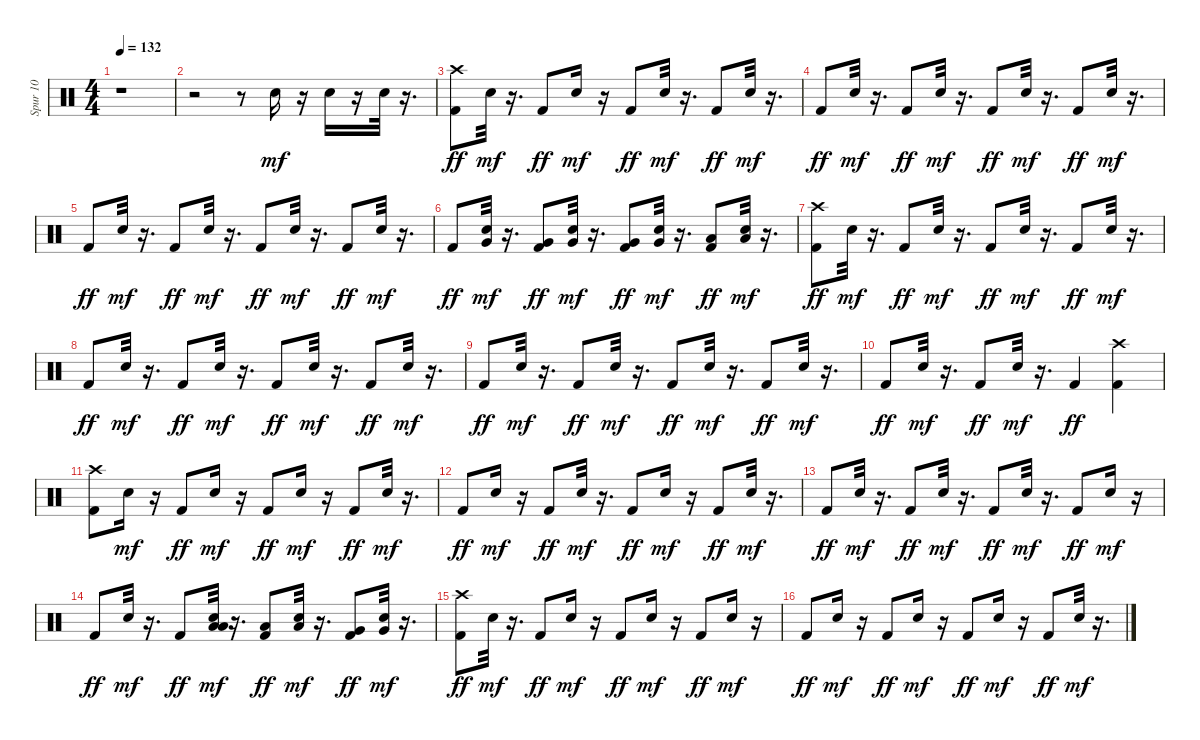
\track ("Spur 10" "Spur 10") {instrument percussion}
\staff {score}
\articulation defaults
\ts (4 4)
\tempo 132
\clef neutral
\ks c
r.1{dy mf} |
r.2 r.8 "Electric Snare (hit)".16 r.16 "Electric Snare (hit)".16 r.16 "Electric Snare (hit)".32 r.16{d} |
("Crash high (hit)" "Kick (hit) 2").8{dy ff} "Snare (hit) 2".32{dy mf} r.16{d} "Kick (hit) 2".8{dy ff} "Snare (hit) 2".16{dy mf} r.16 "Kick (hit) 2".8{dy ff} "Snare (hit) 2".32{dy mf} r.16{d} "Kick (hit) 2".8{dy ff} "Snare (hit) 2".32{dy mf} r.16{d} |
"Kick (hit) 2".8{dy ff} "Snare (hit) 2".32{dy mf} r.16{d} "Kick (hit) 2".8{dy ff} "Snare (hit) 2".32{dy mf} r.16{d} "Kick (hit) 2".8{dy ff} "Snare (hit) 2".32{dy mf} r.16{d} "Kick (hit) 2".8{dy ff} "Snare (hit) 2".32{dy mf} r.16{d} |
"Kick (hit) 2".8{dy ff} "Snare (hit) 2".32{dy mf} r.16{d} "Kick (hit) 2".8{dy ff} "Snare (hit) 2".32{dy mf} r.16{d} "Kick (hit) 2".8{dy ff} "Snare (hit) 2".32{dy mf} r.16{d} "Kick (hit) 2".8{dy ff} "Snare (hit) 2".32{dy mf} r.16{d} |
"Kick (hit) 2".8{dy ff} ("Snare (hit) 2" "Very Low Tom (hit)").32{dy mf} r.16{d} ("Very Low Tom (hit)" "Kick (hit) 2").8{dy ff} ("Snare (hit) 2" "Very Low Tom (hit)").32{dy mf} r.16{d} ("Very Low Tom (hit)" "Kick (hit) 2").8{dy ff} ("Very Low Tom (hit)" "Snare (hit) 2").32{dy mf} r.16{d} ("Low Floor Tom (hit)" "Kick (hit) 2").8{dy ff} ("Snare (hit) 2" "Low Floor Tom (hit)").32{dy mf} r.16{d} |
("Crash high (hit)" "Kick (hit) 2").8{dy ff} "Snare (hit) 2".32{dy mf} r.16{d} "Kick (hit) 2".8{dy ff} "Snare (hit) 2".32{dy mf} r.16{d} "Kick (hit) 2".8{dy ff} "Snare (hit) 2".32{dy mf} r.16{d} "Kick (hit) 2".8{dy ff} "Snare (hit) 2".32{dy mf} r.16{d} |
"Kick (hit) 2".8{dy ff} "Snare (hit) 2".32{dy mf} r.16{d} "Kick (hit) 2".8{dy ff} "Snare (hit) 2".32{dy mf} r.16{d} "Kick (hit) 2".8{dy ff} "Snare (hit) 2".32{dy mf} r.16{d} "Kick (hit) 2".8{dy ff} "Snare (hit) 2".32{dy mf} r.16{d} |
"Kick (hit) 2".8{dy ff} "Snare (hit) 2".32{dy mf} r.16{d} "Kick (hit) 2".8{dy ff} "Snare (hit) 2".32{dy mf} r.16{d} "Kick (hit) 2".8{dy ff} "Snare (hit) 2".32{dy mf} r.16{d} "Kick (hit) 2".8{dy ff} "Snare (hit) 2".32{dy mf} r.16{d} |
"Kick (hit) 2".8{dy ff} "Snare (hit) 2".32{dy mf} r.16{d} "Kick (hit) 2".8{dy ff} "Snare (hit) 2".32{dy mf} r.16{d} "Kick (hit) 2".4{dy ff} ("Crash high (hit)" "Kick (hit) 2").4 |
("Crash high (hit)" "Kick (hit) 2").8 "Snare (hit) 2".16{dy mf} r.16 "Kick (hit) 2".8{dy ff} "Snare (hit) 2".16{dy mf} r.16 "Kick (hit) 2".8{dy ff} "Snare (hit) 2".16{dy mf} r.16 "Kick (hit) 2".8{dy ff} "Snare (hit) 2".32{dy mf} r.16{d} |
"Kick (hit) 2".8{dy ff} "Snare (hit) 2".16{dy mf} r.16 "Kick (hit) 2".8{dy ff} "Snare (hit) 2".32{dy mf} r.16{d} "Kick (hit) 2".8{dy ff} "Snare (hit) 2".16{dy mf} r.16 "Kick (hit) 2".8{dy ff} "Snare (hit) 2".32{dy mf} r.16{d} |
"Kick (hit) 2".8{dy ff} "Snare (hit) 2".32{dy mf} r.16{d} "Kick (hit) 2".8{dy ff} "Snare (hit) 2".32{dy mf} r.16{d} "Kick (hit) 2".8{dy ff} "Snare (hit) 2".32{dy mf} r.16{d} "Kick (hit) 2".8{dy ff} "Snare (hit) 2".16{dy mf} r.16 |
"Kick (hit) 2".8{dy ff} "Snare (hit) 2".32{dy mf} r.16{d} "Kick (hit) 2".8{dy ff} ("Snare (hit) 2" "Low Tom (hit)" "Low Tom (hit)").32{dy mf} r.16{d} ("Low Tom (hit)" "Kick (hit) 2").8{dy ff} ("Snare (hit) 2" "Low Tom (hit)").32{dy mf} r.16{d} ("Very Low Tom (hit)" "Kick (hit) 2").8{dy ff} ("Snare (hit) 2" "Very Low Tom (hit)").32{dy mf} r.16{d} |
("Crash high (hit)" "Kick (hit) 2").8{dy ff} "Snare (hit) 2".32{dy mf} r.16{d} "Kick (hit) 2".8{dy ff} "Snare (hit) 2".16{dy mf} r.16 "Kick (hit) 2".8{dy ff} "Snare (hit) 2".16{dy mf} r.16 "Kick (hit) 2".8{dy ff} "Snare (hit) 2".16{dy mf} r.16 |
"Kick (hit) 2".8{dy ff} "Snare (hit) 2".16{dy mf} r.16 "Kick (hit) 2".8{dy ff} "Snare (hit) 2".16{dy mf} r.16 "Kick (hit) 2".8{dy ff} "Snare (hit) 2".16{dy mf} r.16 "Kick (hit) 2".8{dy ff} "Snare (hit) 2".32{dy mf} r.16{d}
